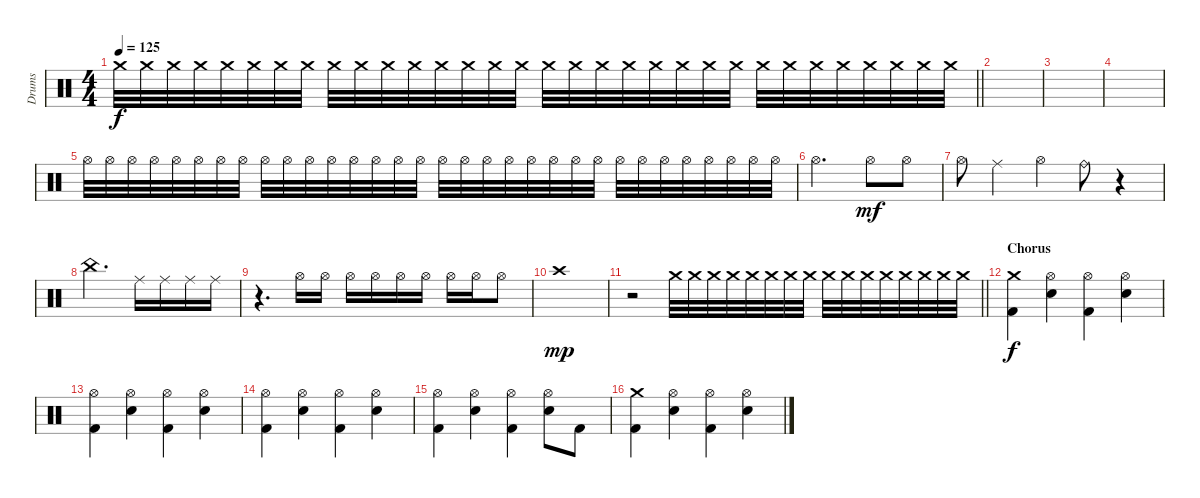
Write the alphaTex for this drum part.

\track ("Drums" "Drums") {instrument percussion}
\staff {score}
\articulation defaults
\ts (4 4)
\tempo 125
\clef neutral
\barLineRight lightlight
\ks c "Crash medium (hit)".32{dy f volume 4} "Crash medium (hit)".32{volume 16} "Crash medium (hit)".32 "Crash medium (hit)".32 "Crash medium (hit)".32 "Crash medium (hit)".32 "Crash medium (hit)".32 "Crash medium (hit)".32 "Crash medium (hit)".32 "Crash medium (hit)".32 "Crash medium (hit)".32 "Crash medium (hit)".32 "Crash medium (hit)".32 "Crash medium (hit)".32 "Crash medium (hit)".32 "Crash medium (hit)".32 "Crash medium (hit)".32 "Crash medium (hit)".32 "Crash medium (hit)".32 "Crash medium (hit)".32 "Crash medium (hit)".32 "Crash medium (hit)".32 "Crash medium (hit)".32 "Crash medium (hit)".32 "Crash medium (hit)".32 "Crash medium (hit)".32 "Crash medium (hit)".32 "Crash medium (hit)".32 "Crash medium (hit)".32 "Crash medium (hit)".32 "Crash medium (hit)".32 "Crash medium (hit)".32
|
|
|
|
"Hi-Hat (open)".32{volume 2} "Hi-Hat (open)".32{volume 8} "Hi-Hat (open)".32 "Hi-Hat (open)".32 "Hi-Hat (open)".32 "Hi-Hat (open)".32 "Hi-Hat (open)".32 "Hi-Hat (open)".32 "Hi-Hat (open)".32 "Hi-Hat (open)".32 "Hi-Hat (open)".32 "Hi-Hat (open)".32 "Hi-Hat (open)".32 "Hi-Hat (open)".32 "Hi-Hat (open)".32 "Hi-Hat (open)".32 "Hi-Hat (open)".32 "Hi-Hat (open)".32 "Hi-Hat (open)".32 "Hi-Hat (open)".32 "Hi-Hat (open)".32 "Hi-Hat (open)".32 "Hi-Hat (open)".32 "Hi-Hat (open)".32 "Hi-Hat (open)".32 "Hi-Hat (open)".32 "Hi-Hat (open)".32 "Hi-Hat (open)".32 "Hi-Hat (open)".32 "Hi-Hat (open)".32 "Hi-Hat (open)".32 "Hi-Hat (open)".32 |
"Hi-Hat (open)".2{d} "Hi-Hat (open)".8{dy mf volume 8} "Hi-Hat (open)".8 |
"Hi-Hat (open)".8 "Ride (middle)".4 "Hi-Hat (open)".4 "Ride (bell)".8 r.4 |
"China (hit)".2{d} "Ride (middle)".16 "Ride (middle)".16 "Ride (middle)".16 "Ride (middle)".16 |
r.4{d} "Hi-Hat (open)".16 "Hi-Hat (open)".16 "Hi-Hat (open)".16 "Hi-Hat (open)".16 "Hi-Hat (open)".16 "Hi-Hat (open)".16 "Hi-Hat (open)".16 "Hi-Hat (open)".16 "Hi-Hat (open)".8 |
"Crash high (hit)".1{dy mp} |
\barLineRight lightlight
r.2 "Crash medium (hit)".32{volume 3} "Crash medium (hit)".32{volume 16} "Crash medium (hit)".32 "Crash medium (hit)".32 "Crash medium (hit)".32 "Crash medium (hit)".32 "Crash medium (hit)".32 "Crash medium (hit)".32 "Crash medium (hit)".32 "Crash medium (hit)".32 "Crash medium (hit)".32 "Crash medium (hit)".32 "Crash medium (hit)".32 "Crash medium (hit)".32 "Crash medium (hit)".32 "Crash medium (hit)".32 |
\section ("" "Chorus")
("Crash medium (hit)" "Kick (hit) 2").4{dy f} ("Hi-Hat (open)" "Electric Snare (hit)").4 ("Hi-Hat (open)" "Kick (hit) 2").4 ("Hi-Hat (open)" "Electric Snare (hit)").4 |
("Hi-Hat (open)" "Kick (hit) 2").4 ("Hi-Hat (open)" "Electric Snare (hit)").4 ("Hi-Hat (open)" "Kick (hit) 2").4 ("Hi-Hat (open)" "Electric Snare (hit)").4 |
("Hi-Hat (open)" "Kick (hit) 2").4 ("Hi-Hat (open)" "Electric Snare (hit)").4 ("Hi-Hat (open)" "Kick (hit) 2").4 ("Hi-Hat (open)" "Electric Snare (hit)").4 |
("Hi-Hat (open)" "Kick (hit) 2").4 ("Hi-Hat (open)" "Electric Snare (hit)").4 ("Hi-Hat (open)" "Kick (hit) 2").4 ("Hi-Hat (open)" "Electric Snare (hit)").8 "Kick (hit) 2".8 |
("Crash medium (hit)" "Kick (hit) 2").4 ("Hi-Hat (open)" "Electric Snare (hit)").4 ("Hi-Hat (open)" "Kick (hit) 2").4 ("Hi-Hat (open)" "Electric Snare (hit)").4
